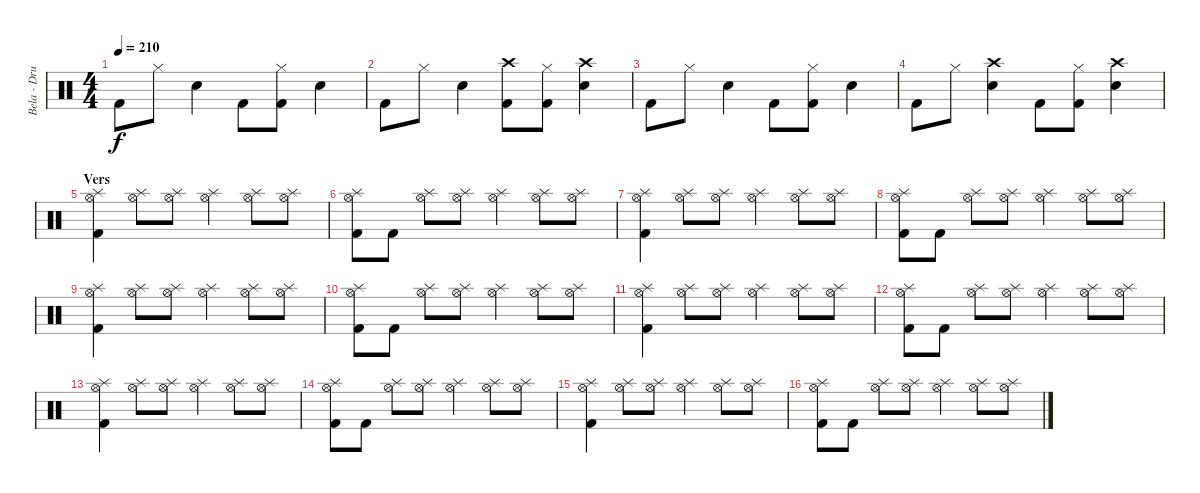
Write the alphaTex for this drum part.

\track ("Bela - Drums" "Bela - Dru") {instrument percussion}
\staff {score}
\articulation defaults
\ts (4 4)
\tempo 210
\clef neutral
\ks c "Kick (hit) 2".8{dy f} "Hi-Hat (closed)".8 "Electric Snare (hit)".4 "Kick (hit) 2".8
("Hi-Hat (closed)" "Kick (hit) 2").8 "Electric Snare (hit)".4 |
"Kick (hit) 2".8 "Hi-Hat (closed)".8 "Electric Snare (hit)".4 ("Crash high (hit)" "Kick (hit) 2").8 ("Hi-Hat (closed)" "Kick (hit) 2").8 ("Crash high (hit)" "Electric Snare (hit)").4 |
"Kick (hit) 2".8 "Hi-Hat (closed)".8 "Electric Snare (hit)".4 "Kick (hit) 2".8 ("Hi-Hat (closed)" "Kick (hit) 2").8 "Electric Snare (hit)".4 |
"Kick (hit) 2".8 "Hi-Hat (closed)".8 ("Crash high (hit)" "Electric Snare (hit)").4 "Kick (hit) 2".8 ("Hi-Hat (closed)" "Kick (hit) 2").8 ("Crash high (hit)" "Electric Snare (hit)").4 |
\section ("" "Vers")
("Hi-Hat (open)" "Splash (hit)" "Kick (hit) 2").4 ("Hi-Hat (open)" "Splash (hit)").8 ("Hi-Hat (open)" "Splash (hit)").8 ("Hi-Hat (open)" "Splash (hit)").4 ("Hi-Hat (open)" "Splash (hit)").8 ("Hi-Hat (open)" "Splash (hit)").8 |
("Hi-Hat (open)" "Splash (hit)" "Kick (hit) 2").8 "Kick (hit) 2".8 ("Hi-Hat (open)" "Splash (hit)").8 ("Hi-Hat (open)" "Splash (hit)").8 ("Hi-Hat (open)" "Splash (hit)").4 ("Hi-Hat (open)" "Splash (hit)").8 ("Hi-Hat (open)" "Splash (hit)").8 |
("Hi-Hat (open)" "Splash (hit)" "Kick (hit) 2").4 ("Hi-Hat (open)" "Splash (hit)").8 ("Hi-Hat (open)" "Splash (hit)").8 ("Hi-Hat (open)" "Splash (hit)").4 ("Hi-Hat (open)" "Splash (hit)").8 ("Hi-Hat (open)" "Splash (hit)").8 |
("Hi-Hat (open)" "Splash (hit)" "Kick (hit) 2").8 "Kick (hit) 2".8 ("Hi-Hat (open)" "Splash (hit)").8 ("Hi-Hat (open)" "Splash (hit)").8 ("Hi-Hat (open)" "Splash (hit)").4 ("Hi-Hat (open)" "Splash (hit)").8 ("Hi-Hat (open)" "Splash (hit)").8 |
("Hi-Hat (open)" "Splash (hit)" "Kick (hit) 2").4 ("Hi-Hat (open)" "Splash (hit)").8 ("Hi-Hat (open)" "Splash (hit)").8 ("Hi-Hat (open)" "Splash (hit)").4 ("Hi-Hat (open)" "Splash (hit)").8 ("Hi-Hat (open)" "Splash (hit)").8 |
("Hi-Hat (open)" "Splash (hit)" "Kick (hit) 2").8 "Kick (hit) 2".8 ("Hi-Hat (open)" "Splash (hit)").8 ("Hi-Hat (open)" "Splash (hit)").8 ("Hi-Hat (open)" "Splash (hit)").4 ("Hi-Hat (open)" "Splash (hit)").8 ("Hi-Hat (open)" "Splash (hit)").8 |
("Hi-Hat (open)" "Splash (hit)" "Kick (hit) 2").4 ("Hi-Hat (open)" "Splash (hit)").8 ("Hi-Hat (open)" "Splash (hit)").8 ("Hi-Hat (open)" "Splash (hit)").4 ("Hi-Hat (open)" "Splash (hit)").8 ("Hi-Hat (open)" "Splash (hit)").8 |
("Hi-Hat (open)" "Splash (hit)" "Kick (hit) 2").8 "Kick (hit) 2".8 ("Hi-Hat (open)" "Splash (hit)").8 ("Hi-Hat (open)" "Splash (hit)").8 ("Hi-Hat (open)" "Splash (hit)").4 ("Hi-Hat (open)" "Splash (hit)").8 ("Hi-Hat (open)" "Splash (hit)").8 |
("Hi-Hat (open)" "Splash (hit)" "Kick (hit) 2").4 ("Hi-Hat (open)" "Splash (hit)").8 ("Hi-Hat (open)" "Splash (hit)").8 ("Hi-Hat (open)" "Splash (hit)").4 ("Hi-Hat (open)" "Splash (hit)").8 ("Hi-Hat (open)" "Splash (hit)").8 |
("Hi-Hat (open)" "Splash (hit)" "Kick (hit) 2").8 "Kick (hit) 2".8 ("Hi-Hat (open)" "Splash (hit)").8 ("Hi-Hat (open)" "Splash (hit)").8 ("Hi-Hat (open)" "Splash (hit)").4 ("Hi-Hat (open)" "Splash (hit)").8 ("Hi-Hat (open)" "Splash (hit)").8 |
("Hi-Hat (open)" "Splash (hit)" "Kick (hit) 2").4 ("Hi-Hat (open)" "Splash (hit)").8 ("Hi-Hat (open)" "Splash (hit)").8 ("Hi-Hat (open)" "Splash (hit)").4 ("Hi-Hat (open)" "Splash (hit)").8 ("Hi-Hat (open)" "Splash (hit)").8 |
("Hi-Hat (open)" "Splash (hit)" "Kick (hit) 2").8 "Kick (hit) 2".8 ("Hi-Hat (open)" "Splash (hit)").8 ("Hi-Hat (open)" "Splash (hit)").8 ("Hi-Hat (open)" "Splash (hit)").4 ("Hi-Hat (open)" "Splash (hit)").8 ("Hi-Hat (open)" "Splash (hit)").8
